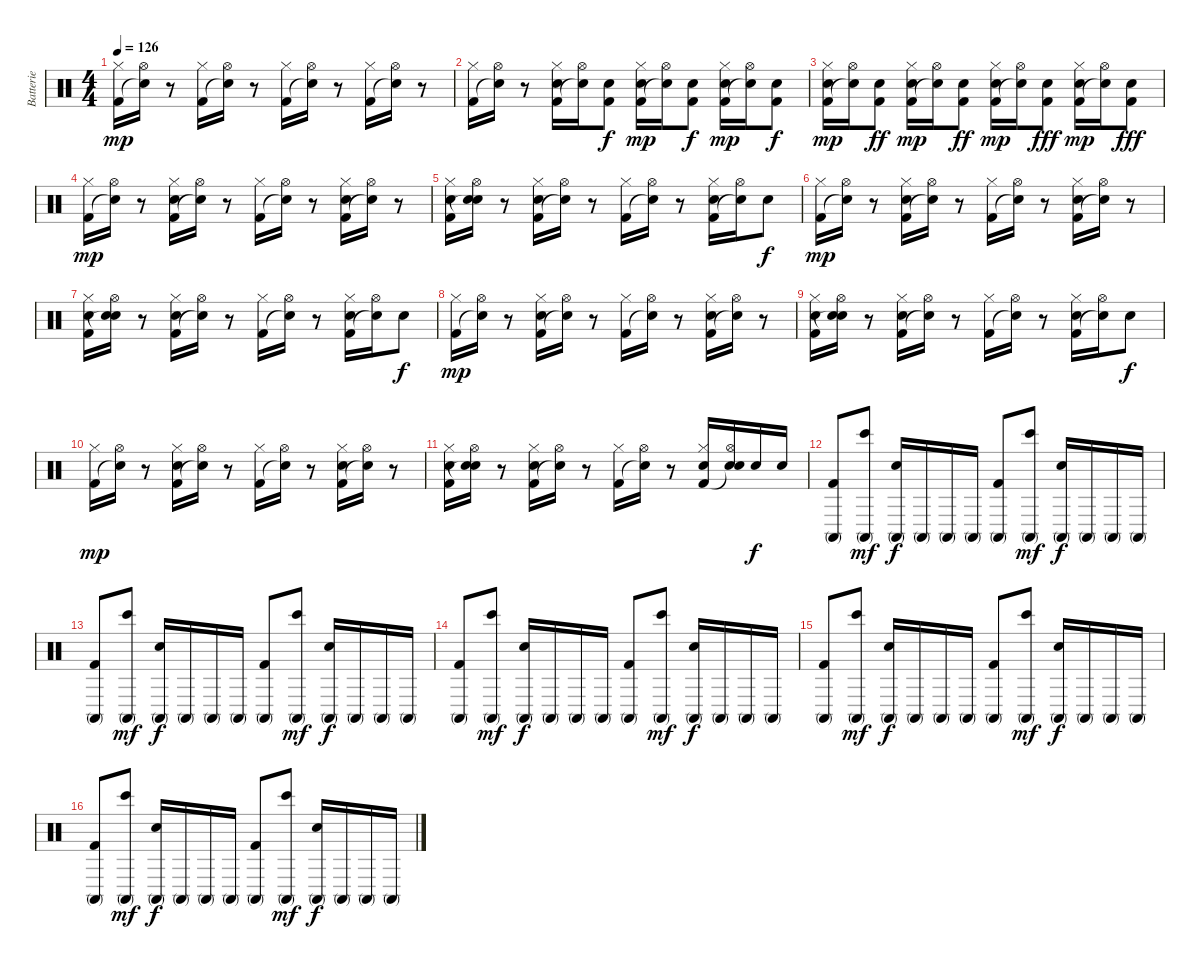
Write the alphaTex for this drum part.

\track ("Batterie" "Batterie") {instrument percussion}
\staff {score}
\articulation defaults
\ts (4 4)
\tempo 126
\clef neutral
\ks c
("Kick (hit) 2" "Hi-Hat (closed)").16{dy mp} ("Snare (hit)"{t} "Hi-Hat (open)").16 r.8 ("Kick (hit) 2" "Hi-Hat (closed)").16 ("Snare (hit)"{t} "Hi-Hat (open)").16 r.8 ("Kick (hit) 2" "Hi-Hat (closed)").16 ("Snare (hit)"{t} "Hi-Hat (open)").16 r.8 ("Kick (hit) 2" "Hi-Hat (closed)").16 ("Snare (hit)"{t} "Hi-Hat (open)").16 r.8 |
("Kick (hit) 2" "Hi-Hat (closed)").16 ("Snare (hit)"{t} "Hi-Hat (open)").16 r.8 ("Kick (hit) 2" "Snare (hit) 2" "Hi-Hat (closed)").16 ("Snare (hit)"{t} "Hi-Hat (open)").16 ("Kick (hit) 2" "Snare (hit) 2").8{dy f} ("Kick (hit) 2" "Snare (hit) 2" "Hi-Hat (closed)").16{dy mp} ("Snare (hit)"{t} "Hi-Hat (open)").16 ("Kick (hit) 2" "Snare (hit) 2").8{dy f} ("Kick (hit) 2" "Snare (hit) 2" "Hi-Hat (closed)").16{dy mp} ("Snare (hit)"{t} "Hi-Hat (open)").16 ("Kick (hit) 2" "Snare (hit) 2").8{dy f} |
("Kick (hit) 2" "Snare (hit) 2" "Hi-Hat (closed)").16{dy mp} ("Snare (hit)"{t} "Hi-Hat (open)").16 ("Kick (hit) 2" "Snare (hit) 2").8{dy ff} ("Kick (hit) 2" "Snare (hit) 2" "Hi-Hat (closed)").16{dy mp} ("Snare (hit)"{t} "Hi-Hat (open)").16 ("Kick (hit) 2" "Snare (hit) 2").8{dy ff} ("Kick (hit) 2" "Snare (hit) 2" "Hi-Hat (closed)").16{dy mp} ("Snare (hit)"{t} "Hi-Hat (open)").16 ("Kick (hit) 2" "Snare (hit) 2").8{dy fff} ("Kick (hit) 2" "Snare (hit) 2" "Hi-Hat (closed)").16{dy mp} ("Snare (hit)"{t} "Hi-Hat (open)").16 ("Kick (hit) 2" "Snare (hit) 2").8{dy fff} |
("Kick (hit) 2" "Hi-Hat (closed)").16{dy mp} ("Snare (hit)"{t} "Hi-Hat (open)").16 r.8 ("Kick (hit) 2" "Snare (hit) 2" "Hi-Hat (closed)").16 ("Snare (hit)"{t} "Hi-Hat (open)").16 r.8 ("Kick (hit) 2" "Hi-Hat (closed)").16 ("Snare (hit)"{t} "Hi-Hat (open)").16 r.8 ("Kick (hit) 2" "Snare (hit) 2" "Hi-Hat (closed)").16 ("Snare (hit)"{t} "Hi-Hat (open)").16 r.8 |
("Kick (hit) 2" "Snare (hit) 2" "Hi-Hat (closed)").16 ("Snare (hit)"{t} "Snare (hit) 2" "Hi-Hat (open)").16 r.8 ("Kick (hit) 2" "Snare (hit) 2" "Hi-Hat (closed)").16 ("Snare (hit)"{t} "Hi-Hat (open)").16 r.8 ("Kick (hit) 2" "Hi-Hat (closed)").16 ("Snare (hit)"{t} "Hi-Hat (open)").16 r.8 ("Kick (hit) 2" "Snare (hit) 2" "Hi-Hat (closed)").16 ("Snare (hit)"{t} "Hi-Hat (open)").16 "Snare (hit) 2".8{dy f} |
("Kick (hit) 2" "Hi-Hat (closed)").16{dy mp} ("Snare (hit)"{t} "Hi-Hat (open)").16 r.8 ("Kick (hit) 2" "Snare (hit) 2" "Hi-Hat (closed)").16 ("Snare (hit)"{t} "Hi-Hat (open)").16 r.8 ("Kick (hit) 2" "Hi-Hat (closed)").16 ("Snare (hit)"{t} "Hi-Hat (open)").16 r.8 ("Kick (hit) 2" "Snare (hit) 2" "Hi-Hat (closed)").16 ("Snare (hit)"{t} "Hi-Hat (open)").16 r.8 |
("Kick (hit) 2" "Snare (hit) 2" "Hi-Hat (closed)").16 ("Snare (hit)"{t} "Snare (hit) 2" "Hi-Hat (open)").16 r.8 ("Kick (hit) 2" "Snare (hit) 2" "Hi-Hat (closed)").16 ("Snare (hit)"{t} "Hi-Hat (open)").16 r.8 ("Kick (hit) 2" "Hi-Hat (closed)").16 ("Snare (hit)"{t} "Hi-Hat (open)").16 r.8 ("Kick (hit) 2" "Snare (hit) 2" "Hi-Hat (closed)").16 ("Snare (hit)"{t} "Hi-Hat (open)").16 "Snare (hit) 2".8{dy f} |
("Kick (hit) 2" "Hi-Hat (closed)").16{dy mp} ("Snare (hit)"{t} "Hi-Hat (open)").16 r.8 ("Kick (hit) 2" "Snare (hit) 2" "Hi-Hat (closed)").16 ("Snare (hit)"{t} "Hi-Hat (open)").16 r.8 ("Kick (hit) 2" "Hi-Hat (closed)").16 ("Snare (hit)"{t} "Hi-Hat (open)").16 r.8 ("Kick (hit) 2" "Snare (hit) 2" "Hi-Hat (closed)").16 ("Snare (hit)"{t} "Hi-Hat (open)").16 r.8 |
("Kick (hit) 2" "Snare (hit) 2" "Hi-Hat (closed)").16 ("Snare (hit)"{t} "Snare (hit) 2" "Hi-Hat (open)").16 r.8 ("Kick (hit) 2" "Snare (hit) 2" "Hi-Hat (closed)").16 ("Snare (hit)"{t} "Hi-Hat (open)").16 r.8 ("Kick (hit) 2" "Hi-Hat (closed)").16 ("Snare (hit)"{t} "Hi-Hat (open)").16 r.8 ("Kick (hit) 2" "Snare (hit) 2" "Hi-Hat (closed)").16 ("Snare (hit)"{t} "Hi-Hat (open)").16 "Snare (hit) 2".8{dy f} |
("Kick (hit) 2" "Hi-Hat (closed)").16{dy mp} ("Snare (hit)"{t} "Hi-Hat (open)").16 r.8 ("Kick (hit) 2" "Snare (hit) 2" "Hi-Hat (closed)").16 ("Snare (hit)"{t} "Hi-Hat (open)").16 r.8 ("Kick (hit) 2" "Hi-Hat (closed)").16 ("Snare (hit)"{t} "Hi-Hat (open)").16 r.8 ("Kick (hit) 2" "Snare (hit) 2" "Hi-Hat (closed)").16 ("Snare (hit)"{t} "Hi-Hat (open)").16 r.8 |
("Kick (hit) 2" "Snare (hit) 2" "Hi-Hat (closed)").16 ("Snare (hit)"{t} "Snare (hit) 2" "Hi-Hat (open)").16 r.8 ("Kick (hit) 2" "Snare (hit) 2" "Hi-Hat (closed)").16 ("Snare (hit)"{t} "Hi-Hat (open)").16 r.8 ("Kick (hit) 2" "Hi-Hat (closed)").16 ("Snare (hit)"{t} "Hi-Hat (open)").16 r.8 ("Kick (hit) 2" "Snare (hit) 2" "Hi-Hat (closed)").16 ("Snare (hit)"{t} "Electric Snare (hit)" "Hi-Hat (open)").16 "Snare (hit) 2".16{dy f} "Electric Snare (hit)".16 |
("Conga high (mute)" "Kick (hit) 2").8 ("Conga high (mute)" "Bongo High (hit)").8{dy mf} ("Snare (hit) 2" "Conga high (mute)").16{dy f} "Conga high (mute)".16 "Conga high (mute)".16 "Conga high (mute)".16 ("Conga high (mute)" "Kick (hit) 2").8 ("Conga high (mute)" "Bongo High (hit)").8{dy mf} ("Snare (hit) 2" "Conga high (mute)").16{dy f} "Conga high (mute)".16 "Conga high (mute)".16 "Conga high (mute)".16 |
("Conga high (mute)" "Kick (hit) 2").8 ("Conga high (mute)" "Bongo High (hit)").8{dy mf} ("Snare (hit) 2" "Conga high (mute)").16{dy f} "Conga high (mute)".16 "Conga high (mute)".16 "Conga high (mute)".16 ("Conga high (mute)" "Kick (hit) 2").8 ("Conga high (mute)" "Bongo High (hit)").8{dy mf} ("Snare (hit) 2" "Conga high (mute)").16{dy f} "Conga high (mute)".16 "Conga high (mute)".16 "Conga high (mute)".16 |
("Conga high (mute)" "Kick (hit) 2").8 ("Conga high (mute)" "Bongo High (hit)").8{dy mf} ("Snare (hit) 2" "Conga high (mute)").16{dy f} "Conga high (mute)".16 "Conga high (mute)".16 "Conga high (mute)".16 ("Conga high (mute)" "Kick (hit) 2").8 ("Conga high (mute)" "Bongo High (hit)").8{dy mf} ("Snare (hit) 2" "Conga high (mute)").16{dy f} "Conga high (mute)".16 "Conga high (mute)".16 "Conga high (mute)".16 |
("Conga high (mute)" "Kick (hit) 2").8 ("Conga high (mute)" "Bongo High (hit)").8{dy mf} ("Snare (hit) 2" "Conga high (mute)").16{dy f} "Conga high (mute)".16 "Conga high (mute)".16 "Conga high (mute)".16 ("Conga high (mute)" "Kick (hit) 2").8 ("Conga high (mute)" "Bongo High (hit)").8{dy mf} ("Snare (hit) 2" "Conga high (mute)").16{dy f} "Conga high (mute)".16 "Conga high (mute)".16 "Conga high (mute)".16 |
("Conga high (mute)" "Kick (hit) 2").8 ("Conga high (mute)" "Bongo High (hit)").8{dy mf} ("Snare (hit) 2" "Conga high (mute)").16{dy f} "Conga high (mute)".16 "Conga high (mute)".16 "Conga high (mute)".16 ("Conga high (mute)" "Kick (hit) 2").8 ("Conga high (mute)" "Bongo High (hit)").8{dy mf} ("Snare (hit) 2" "Conga high (mute)").16{dy f} "Conga high (mute)".16 "Conga high (mute)".16 "Conga high (mute)".16
